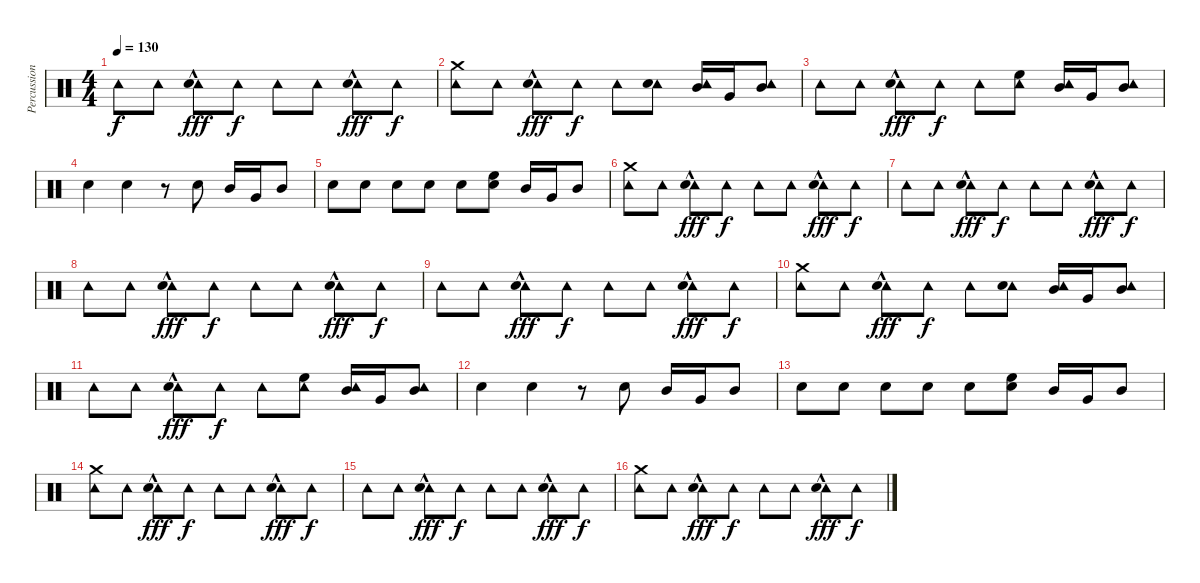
\track ("Percussion" "Percussion") {instrument percussion}
\staff {score}
\articulation defaults
\ts (4 4)
\tempo 130
\clef neutral
\ks c "Tambourine (hit)".8{dy f} "Tambourine (hit)".8
("Tambourine (hit)"{hac} "Snare (hit) 2").8{dy fff} "Tambourine (hit)".8{dy f} "Tambourine (hit)".8 "Tambourine (hit)".8 ("Tambourine (hit)"{hac} "Snare (hit) 2").8{dy fff} "Tambourine (hit)".8{dy f} |
("Crash medium (hit)" "Tambourine (hit)").8 "Tambourine (hit)".8 ("Tambourine (hit)"{hac} "Snare (hit) 2").8{dy fff} "Tambourine (hit)".8{dy f} "Tambourine (hit)".8 ("Tambourine (hit)" "Electric Snare (hit)").8 ("Tambourine (hit)" "Mid Tom (hit)").16 "Very Low Tom (hit)".16 ("Tambourine (hit)" "Mid Tom (hit)").8 |
"Tambourine (hit)".8 "Tambourine (hit)".8 ("Tambourine (hit)"{hac} "Snare (hit) 2").8{dy fff} "Tambourine (hit)".8{dy f} "Tambourine (hit)".8 ("Tambourine (hit)" "High Floor Tom (hit)").8 ("Tambourine (hit)" "Mid Tom (hit)").16 "Very Low Tom (hit)".16 ("Tambourine (hit)" "Mid Tom (hit)").8 |
"Snare (hit) 2".4 "Snare (hit) 2".4 r.8 "Electric Snare (hit)".8 "Mid Tom (hit)".16 "Very Low Tom (hit)".16 "Mid Tom (hit)".8 |
"Snare (hit) 2".8 "Snare (hit) 2".8 "Snare (hit) 2".8 "Snare (hit) 2".8 "Snare (hit) 2".8 ("Snare (hit) 2" "High Floor Tom (hit)").8 "Mid Tom (hit)".16 "Very Low Tom (hit)".16 "Mid Tom (hit)".8 |
("Crash medium (hit)" "Tambourine (hit)").8 "Tambourine (hit)".8 ("Tambourine (hit)"{hac} "Snare (hit) 2").8{dy fff} "Tambourine (hit)".8{dy f} "Tambourine (hit)".8 "Tambourine (hit)".8 ("Tambourine (hit)"{hac} "Snare (hit) 2").8{dy fff} "Tambourine (hit)".8{dy f} |
"Tambourine (hit)".8 "Tambourine (hit)".8 ("Tambourine (hit)"{hac} "Snare (hit) 2").8{dy fff} "Tambourine (hit)".8{dy f} "Tambourine (hit)".8 "Tambourine (hit)".8 ("Tambourine (hit)"{hac} "Snare (hit) 2").8{dy fff} "Tambourine (hit)".8{dy f} |
"Tambourine (hit)".8 "Tambourine (hit)".8 ("Tambourine (hit)"{hac} "Snare (hit) 2").8{dy fff} "Tambourine (hit)".8{dy f} "Tambourine (hit)".8 "Tambourine (hit)".8 ("Tambourine (hit)"{hac} "Snare (hit) 2").8{dy fff} "Tambourine (hit)".8{dy f} |
"Tambourine (hit)".8 "Tambourine (hit)".8 ("Tambourine (hit)"{hac} "Snare (hit) 2").8{dy fff} "Tambourine (hit)".8{dy f} "Tambourine (hit)".8 "Tambourine (hit)".8 ("Tambourine (hit)"{hac} "Snare (hit) 2").8{dy fff} "Tambourine (hit)".8{dy f} |
("Crash medium (hit)" "Tambourine (hit)").8 "Tambourine (hit)".8 ("Tambourine (hit)"{hac} "Snare (hit) 2").8{dy fff} "Tambourine (hit)".8{dy f} "Tambourine (hit)".8 ("Tambourine (hit)" "Electric Snare (hit)").8 ("Tambourine (hit)" "Mid Tom (hit)").16 "Very Low Tom (hit)".16 ("Tambourine (hit)" "Mid Tom (hit)").8 |
"Tambourine (hit)".8 "Tambourine (hit)".8 ("Tambourine (hit)"{hac} "Snare (hit) 2").8{dy fff} "Tambourine (hit)".8{dy f} "Tambourine (hit)".8 ("Tambourine (hit)" "High Floor Tom (hit)").8 ("Tambourine (hit)" "Mid Tom (hit)").16 "Very Low Tom (hit)".16 ("Tambourine (hit)" "Mid Tom (hit)").8 |
"Snare (hit) 2".4 "Snare (hit) 2".4 r.8 "Electric Snare (hit)".8 "Mid Tom (hit)".16 "Very Low Tom (hit)".16 "Mid Tom (hit)".8 |
"Snare (hit) 2".8 "Snare (hit) 2".8 "Snare (hit) 2".8 "Snare (hit) 2".8 "Snare (hit) 2".8 ("Snare (hit) 2" "High Floor Tom (hit)").8 "Mid Tom (hit)".16 "Very Low Tom (hit)".16 "Mid Tom (hit)".8 |
("Crash medium (hit)" "Tambourine (hit)").8 "Tambourine (hit)".8 ("Tambourine (hit)"{hac} "Snare (hit) 2").8{dy fff} "Tambourine (hit)".8{dy f} "Tambourine (hit)".8 "Tambourine (hit)".8 ("Tambourine (hit)"{hac} "Snare (hit) 2").8{dy fff} "Tambourine (hit)".8{dy f} |
"Tambourine (hit)".8 "Tambourine (hit)".8 ("Tambourine (hit)"{hac} "Snare (hit) 2").8{dy fff} "Tambourine (hit)".8{dy f} "Tambourine (hit)".8 "Tambourine (hit)".8 ("Tambourine (hit)"{hac} "Snare (hit) 2").8{dy fff} "Tambourine (hit)".8{dy f} |
("Crash medium (hit)" "Tambourine (hit)").8 "Tambourine (hit)".8 ("Tambourine (hit)"{hac} "Snare (hit) 2").8{dy fff} "Tambourine (hit)".8{dy f} "Tambourine (hit)".8 "Tambourine (hit)".8 ("Tambourine (hit)"{hac} "Snare (hit) 2").8{dy fff} "Tambourine (hit)".8{dy f}
